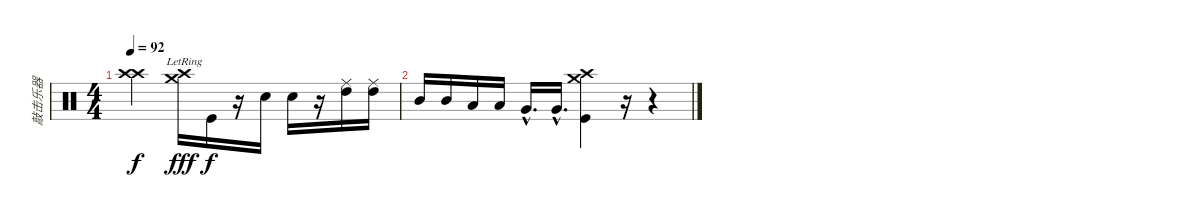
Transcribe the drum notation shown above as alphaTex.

\track ("敲击乐器" "敲击乐器") {instrument percussion}
\staff {score}
\articulation defaults
\ts (4 4)
\tempo 92
\clef neutral
\ks c
("Crash high (hit)" "Crash high (hit)").2{dy f} ("Crash high (hit)" "Crash medium (hit)"{lr}).16{dy fff} "Kick (hit)".16{dy f} r.16 "Electric Snare (hit)".16 "Electric Snare (hit)".16 r.16 ("High Tom (hit)" "Ride (middle)").16 ("High Tom (hit)" "Ride (middle)").16 |
"Mid Tom (hit)".16 "Mid Tom (hit)".16 "Low Tom (hit)".16 "Low Tom (hit)".16 "Very Low Tom (hit)"{hac}.16{d} "Very Low Tom (hit)"{hac}.16{d} ("Kick (hit)" "Crash high (hit)" "Crash medium (hit)").4 r.16 r.4
